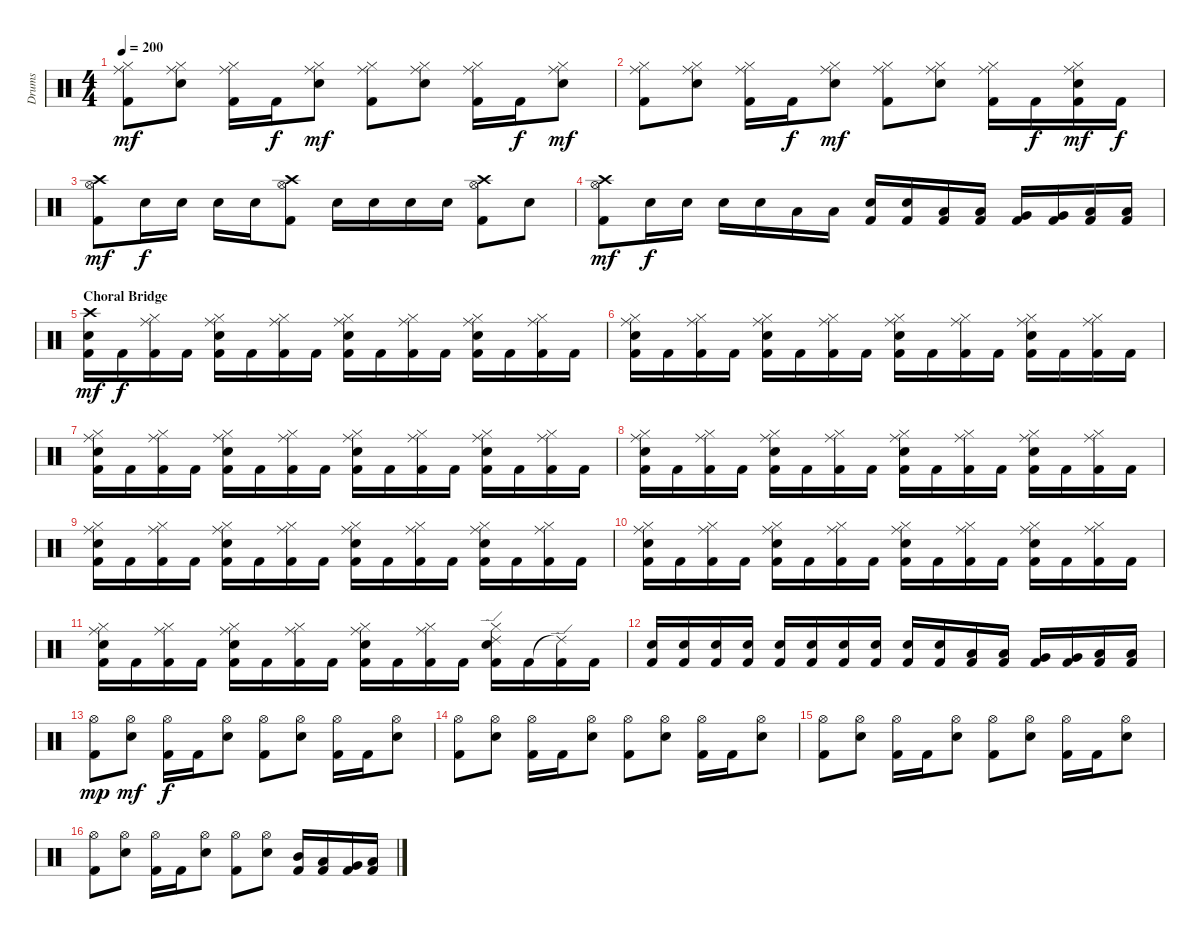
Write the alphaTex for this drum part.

\track ("Drums" "Drums") {instrument percussion}
\staff {score}
\articulation defaults
\ts (4 4)
\tempo 200
\clef neutral
\ks c
("Hi-Hat (closed)" "Ride (middle)" "Kick (hit) 2").8{dy mf} ("Hi-Hat (closed)" "Ride (middle)" "Snare (hit) 2").8 ("Hi-Hat (closed)" "Ride (middle)" "Kick (hit) 2").16 "Kick (hit) 2".16{dy f} ("Hi-Hat (closed)" "Ride (middle)" "Snare (hit) 2").8{dy mf} ("Hi-Hat (closed)" "Ride (middle)" "Kick (hit) 2").8 ("Hi-Hat (closed)" "Ride (middle)" "Snare (hit) 2").8 ("Hi-Hat (closed)" "Ride (middle)" "Kick (hit) 2").16 "Kick (hit) 2".16{dy f} ("Hi-Hat (closed)" "Ride (middle)" "Snare (hit) 2").8{dy mf} |
("Hi-Hat (closed)" "Ride (middle)" "Kick (hit) 2").8 ("Hi-Hat (closed)" "Ride (middle)" "Snare (hit) 2").8 ("Hi-Hat (closed)" "Ride (middle)" "Kick (hit) 2").16 "Kick (hit) 2".16{dy f} ("Hi-Hat (closed)" "Ride (middle)" "Snare (hit) 2").8{dy mf} ("Hi-Hat (closed)" "Ride (middle)" "Kick (hit) 2").8 ("Hi-Hat (closed)" "Ride (middle)" "Snare (hit) 2").8 ("Hi-Hat (closed)" "Ride (middle)" "Kick (hit) 2").16 "Kick (hit) 2".16{dy f} ("Hi-Hat (closed)" "Ride (middle)" "Snare (hit) 2" "Kick (hit) 2").16{dy mf} "Kick (hit) 2".16{dy f} |
("Crash high (hit)" "Hi-Hat (open)" "Kick (hit) 2").8{dy mf} "Snare (hit) 2".16{dy f} "Snare (hit) 2".16 "Snare (hit) 2".16 "Snare (hit) 2".16 ("Crash high (hit)" "Hi-Hat (open)" "Kick (hit) 2").8 "Snare (hit) 2".16 "Snare (hit) 2".16 "Snare (hit) 2".16 "Snare (hit) 2".16 ("Crash high (hit)" "Hi-Hat (open)" "Kick (hit) 2").8 "Snare (hit) 2".8 |
("Crash high (hit)" "Hi-Hat (open)" "Kick (hit) 2").8{dy mf} "Snare (hit) 2".16{dy f} "Snare (hit) 2".16 "Snare (hit) 2".16 "Snare (hit) 2".16 "Low Tom (hit)".16 "Low Tom (hit)".16 ("Snare (hit) 2" "Kick (hit) 2").16 ("Snare (hit) 2" "Kick (hit) 2").16 ("Low Tom (hit)" "Kick (hit) 2").16 ("Low Tom (hit)" "Kick (hit) 2").16 ("Very Low Tom (hit)" "Kick (hit) 2").16 ("Very Low Tom (hit)" "Kick (hit) 2").16 ("Low Floor Tom (hit)" "Kick (hit) 2").16 ("Low Floor Tom (hit)" "Kick (hit) 2").16 |
\section ("" "Choral Bridge")
("Crash high (hit)" "Snare (hit) 2" "Kick (hit) 2").16{dy mf} "Kick (hit) 2".16{dy f} ("Hi-Hat (closed)" "Ride (middle)" "Kick (hit) 2").16 "Kick (hit) 2".16 ("Hi-Hat (closed)" "Ride (middle)" "Snare (hit) 2" "Kick (hit) 2").16 "Kick (hit) 2".16 ("Hi-Hat (closed)" "Ride (middle)" "Kick (hit) 2").16 "Kick (hit) 2".16 ("Hi-Hat (closed)" "Ride (middle)" "Snare (hit) 2" "Kick (hit) 2").16 "Kick (hit) 2".16 ("Hi-Hat (closed)" "Ride (middle)" "Kick (hit) 2").16 "Kick (hit) 2".16 ("Hi-Hat (closed)" "Ride (middle)" "Snare (hit) 2" "Kick (hit) 2").16 "Kick (hit) 2".16 ("Hi-Hat (closed)" "Ride (middle)" "Kick (hit) 2").16 "Kick (hit) 2".16 |
("Hi-Hat (closed)" "Ride (middle)" "Snare (hit) 2" "Kick (hit) 2").16 "Kick (hit) 2".16 ("Hi-Hat (closed)" "Ride (middle)" "Kick (hit) 2").16 "Kick (hit) 2".16 ("Hi-Hat (closed)" "Ride (middle)" "Snare (hit) 2" "Kick (hit) 2").16 "Kick (hit) 2".16 ("Hi-Hat (closed)" "Ride (middle)" "Kick (hit) 2").16 "Kick (hit) 2".16 ("Hi-Hat (closed)" "Ride (middle)" "Snare (hit) 2" "Kick (hit) 2").16 "Kick (hit) 2".16 ("Hi-Hat (closed)" "Ride (middle)" "Kick (hit) 2").16 "Kick (hit) 2".16 ("Hi-Hat (closed)" "Ride (middle)" "Snare (hit) 2" "Kick (hit) 2").16 "Kick (hit) 2".16 ("Hi-Hat (closed)" "Ride (middle)" "Kick (hit) 2").16 "Kick (hit) 2".16 |
("Hi-Hat (closed)" "Ride (middle)" "Snare (hit) 2" "Kick (hit) 2").16 "Kick (hit) 2".16 ("Hi-Hat (closed)" "Ride (middle)" "Kick (hit) 2").16 "Kick (hit) 2".16 ("Hi-Hat (closed)" "Ride (middle)" "Snare (hit) 2" "Kick (hit) 2").16 "Kick (hit) 2".16 ("Hi-Hat (closed)" "Ride (middle)" "Kick (hit) 2").16 "Kick (hit) 2".16 ("Hi-Hat (closed)" "Ride (middle)" "Snare (hit) 2" "Kick (hit) 2").16 "Kick (hit) 2".16 ("Hi-Hat (closed)" "Ride (middle)" "Kick (hit) 2").16 "Kick (hit) 2".16 ("Hi-Hat (closed)" "Ride (middle)" "Snare (hit) 2" "Kick (hit) 2").16 "Kick (hit) 2".16 ("Hi-Hat (closed)" "Ride (middle)" "Kick (hit) 2").16 "Kick (hit) 2".16 |
("Hi-Hat (closed)" "Ride (middle)" "Snare (hit) 2" "Kick (hit) 2").16 "Kick (hit) 2".16 ("Hi-Hat (closed)" "Ride (middle)" "Kick (hit) 2").16 "Kick (hit) 2".16 ("Hi-Hat (closed)" "Ride (middle)" "Snare (hit) 2" "Kick (hit) 2").16 "Kick (hit) 2".16 ("Hi-Hat (closed)" "Ride (middle)" "Kick (hit) 2").16 "Kick (hit) 2".16 ("Hi-Hat (closed)" "Ride (middle)" "Snare (hit) 2" "Kick (hit) 2").16 "Kick (hit) 2".16 ("Hi-Hat (closed)" "Ride (middle)" "Kick (hit) 2").16 "Kick (hit) 2".16 ("Hi-Hat (closed)" "Ride (middle)" "Snare (hit) 2" "Kick (hit) 2").16 "Kick (hit) 2".16 ("Hi-Hat (closed)" "Ride (middle)" "Kick (hit) 2").16 "Kick (hit) 2".16 |
("Hi-Hat (closed)" "Ride (middle)" "Snare (hit) 2" "Kick (hit) 2").16 "Kick (hit) 2".16 ("Hi-Hat (closed)" "Ride (middle)" "Kick (hit) 2").16 "Kick (hit) 2".16 ("Hi-Hat (closed)" "Ride (middle)" "Snare (hit) 2" "Kick (hit) 2").16 "Kick (hit) 2".16 ("Hi-Hat (closed)" "Ride (middle)" "Kick (hit) 2").16 "Kick (hit) 2".16 ("Hi-Hat (closed)" "Ride (middle)" "Snare (hit) 2" "Kick (hit) 2").16 "Kick (hit) 2".16 ("Hi-Hat (closed)" "Ride (middle)" "Kick (hit) 2").16 "Kick (hit) 2".16 ("Hi-Hat (closed)" "Ride (middle)" "Snare (hit) 2" "Kick (hit) 2").16 "Kick (hit) 2".16 ("Hi-Hat (closed)" "Ride (middle)" "Kick (hit) 2").16 "Kick (hit) 2".16 |
("Hi-Hat (closed)" "Ride (middle)" "Snare (hit) 2" "Kick (hit) 2").16 "Kick (hit) 2".16 ("Hi-Hat (closed)" "Ride (middle)" "Kick (hit) 2").16 "Kick (hit) 2".16 ("Hi-Hat (closed)" "Ride (middle)" "Snare (hit) 2" "Kick (hit) 2").16 "Kick (hit) 2".16 ("Hi-Hat (closed)" "Ride (middle)" "Kick (hit) 2").16 "Kick (hit) 2".16 ("Hi-Hat (closed)" "Ride (middle)" "Snare (hit) 2" "Kick (hit) 2").16 "Kick (hit) 2".16 ("Hi-Hat (closed)" "Ride (middle)" "Kick (hit) 2").16 "Kick (hit) 2".16 ("Hi-Hat (closed)" "Ride (middle)" "Snare (hit) 2" "Kick (hit) 2").16 "Kick (hit) 2".16 ("Hi-Hat (closed)" "Ride (middle)" "Kick (hit) 2").16 "Kick (hit) 2".16 |
("Hi-Hat (closed)" "Ride (middle)" "Snare (hit) 2" "Kick (hit) 2").16 "Kick (hit) 2".16 ("Hi-Hat (closed)" "Ride (middle)" "Kick (hit) 2").16 "Kick (hit) 2".16 ("Hi-Hat (closed)" "Ride (middle)" "Snare (hit) 2" "Kick (hit) 2").16 "Kick (hit) 2".16 ("Hi-Hat (closed)" "Ride (middle)" "Kick (hit) 2").16 "Kick (hit) 2".16 ("Hi-Hat (closed)" "Ride (middle)" "Snare (hit) 2" "Kick (hit) 2").16 "Kick (hit) 2".16 ("Hi-Hat (closed)" "Ride (middle)" "Kick (hit) 2").16 "Kick (hit) 2".16 ("Hi-Hat (closed)" "Ride (edge) 2" "Snare (hit) 2" "Kick (hit) 2").16 "Kick (hit) 2".16 ("Ride (edge) 2"{t} "Kick (hit) 2").16 "Kick (hit) 2".16 |
("Snare (hit) 2" "Kick (hit) 2").16 ("Snare (hit) 2" "Kick (hit) 2").16 ("Snare (hit) 2" "Kick (hit) 2").16 ("Snare (hit) 2" "Kick (hit) 2").16 ("Snare (hit) 2" "Kick (hit) 2").16 ("Snare (hit) 2" "Kick (hit) 2").16 ("Snare (hit) 2" "Kick (hit) 2").16 ("Snare (hit) 2" "Kick (hit) 2").16 ("Snare (hit) 2" "Kick (hit) 2").16 ("Snare (hit) 2" "Kick (hit) 2").16 ("Low Tom (hit)" "Kick (hit) 2").16 ("Low Tom (hit)" "Kick (hit) 2").16 ("Very Low Tom (hit)" "Kick (hit) 2").16 ("Very Low Tom (hit)" "Kick (hit) 2").16 ("Low Floor Tom (hit)" "Kick (hit) 2").16 ("Low Floor Tom (hit)" "Kick (hit) 2").16 |
("Hi-Hat (open)" "Kick (hit) 2").8{dy mp} ("Hi-Hat (open)" "Snare (hit) 2").8{dy mf} ("Hi-Hat (open)" "Kick (hit) 2").16{dy f} "Kick (hit) 2".16 ("Hi-Hat (open)" "Snare (hit) 2").8 ("Hi-Hat (open)" "Kick (hit) 2").8 ("Hi-Hat (open)" "Snare (hit) 2").8 ("Hi-Hat (open)" "Kick (hit) 2").16 "Kick (hit) 2".16 ("Hi-Hat (open)" "Snare (hit) 2").8 |
("Hi-Hat (open)" "Kick (hit) 2").8 ("Hi-Hat (open)" "Snare (hit) 2").8 ("Hi-Hat (open)" "Kick (hit) 2").16 "Kick (hit) 2".16 ("Hi-Hat (open)" "Snare (hit) 2").8 ("Hi-Hat (open)" "Kick (hit) 2").8 ("Hi-Hat (open)" "Snare (hit) 2").8 ("Hi-Hat (open)" "Kick (hit) 2").16 "Kick (hit) 2".16 ("Hi-Hat (open)" "Snare (hit) 2").8 |
("Hi-Hat (open)" "Kick (hit) 2").8 ("Hi-Hat (open)" "Snare (hit) 2").8 ("Hi-Hat (open)" "Kick (hit) 2").16 "Kick (hit) 2".16 ("Hi-Hat (open)" "Snare (hit) 2").8 ("Hi-Hat (open)" "Kick (hit) 2").8 ("Hi-Hat (open)" "Snare (hit) 2").8 ("Hi-Hat (open)" "Kick (hit) 2").16 "Kick (hit) 2".16 ("Hi-Hat (open)" "Snare (hit) 2").8 |
("Hi-Hat (open)" "Kick (hit) 2").8 ("Hi-Hat (open)" "Snare (hit) 2").8 ("Hi-Hat (open)" "Kick (hit) 2").16 "Kick (hit) 2".16 ("Hi-Hat (open)" "Snare (hit) 2").8 ("Hi-Hat (open)" "Kick (hit) 2").8 ("Hi-Hat (open)" "Snare (hit) 2").8 ("Mid Tom (hit)" "Kick (hit) 2").16 ("Low Tom (hit)" "Kick (hit) 2").16 ("Very Low Tom (hit)" "Kick (hit) 2").16 ("Low Floor Tom (hit)" "Kick (hit) 2").16
